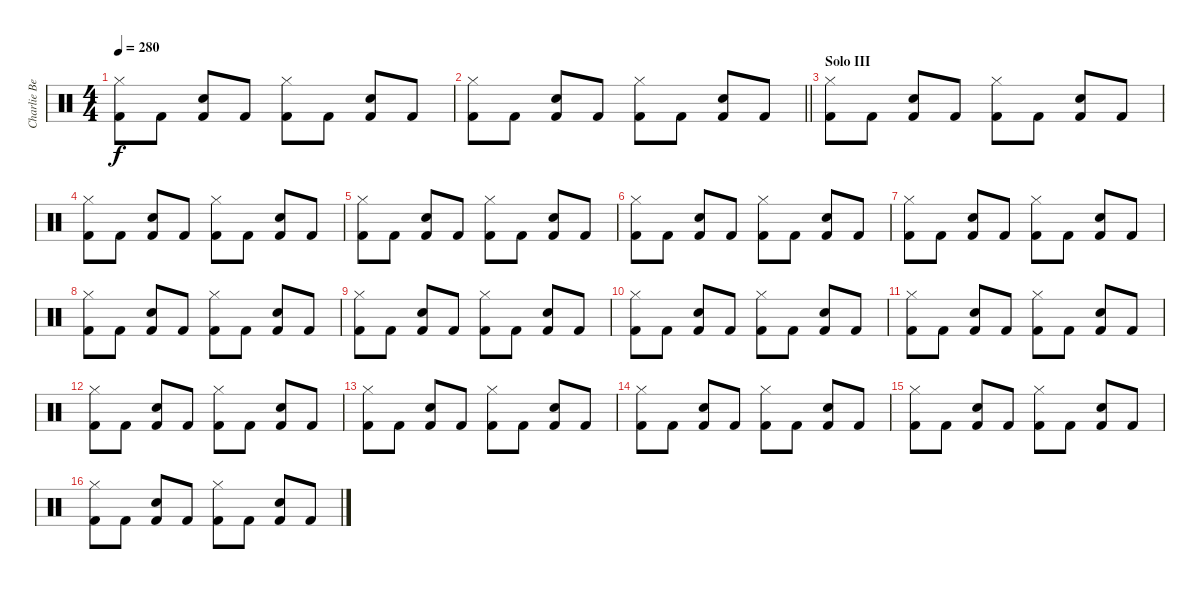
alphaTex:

\track ("Charlie Benante" "Charlie Be") {instrument percussion}
\staff {score}
\articulation defaults
\ts (4 4)
\tempo 280
\clef neutral
\ks c
("Hi-Hat (closed)" "Kick (hit) 2").8{dy f} "Kick (hit) 2".8 ("Snare (hit) 2" "Kick (hit) 2").8 "Kick (hit) 2".8 ("Hi-Hat (closed)" "Kick (hit) 2").8 "Kick (hit) 2".8 ("Snare (hit) 2" "Kick (hit) 2").8 "Kick (hit) 2".8 |
\barLineRight lightlight
("Hi-Hat (closed)" "Kick (hit) 2").8 "Kick (hit) 2".8 ("Snare (hit) 2" "Kick (hit) 2").8 "Kick (hit) 2".8 ("Hi-Hat (closed)" "Kick (hit) 2").8 "Kick (hit) 2".8 ("Snare (hit) 2" "Kick (hit) 2").8 "Kick (hit) 2".8 |
\section ("" "Solo III")
("Hi-Hat (closed)" "Kick (hit) 2").8 "Kick (hit) 2".8 ("Snare (hit) 2" "Kick (hit) 2").8 "Kick (hit) 2".8 ("Hi-Hat (closed)" "Kick (hit) 2").8 "Kick (hit) 2".8 ("Snare (hit) 2" "Kick (hit) 2").8 "Kick (hit) 2".8 |
("Hi-Hat (closed)" "Kick (hit) 2").8 "Kick (hit) 2".8 ("Snare (hit) 2" "Kick (hit) 2").8 "Kick (hit) 2".8 ("Hi-Hat (closed)" "Kick (hit) 2").8 "Kick (hit) 2".8 ("Snare (hit) 2" "Kick (hit) 2").8 "Kick (hit) 2".8 |
("Hi-Hat (closed)" "Kick (hit) 2").8 "Kick (hit) 2".8 ("Snare (hit) 2" "Kick (hit) 2").8 "Kick (hit) 2".8 ("Hi-Hat (closed)" "Kick (hit) 2").8 "Kick (hit) 2".8 ("Snare (hit) 2" "Kick (hit) 2").8 "Kick (hit) 2".8 |
("Hi-Hat (closed)" "Kick (hit) 2").8 "Kick (hit) 2".8 ("Snare (hit) 2" "Kick (hit) 2").8 "Kick (hit) 2".8 ("Hi-Hat (closed)" "Kick (hit) 2").8 "Kick (hit) 2".8 ("Snare (hit) 2" "Kick (hit) 2").8 "Kick (hit) 2".8 |
("Hi-Hat (closed)" "Kick (hit) 2").8 "Kick (hit) 2".8 ("Snare (hit) 2" "Kick (hit) 2").8 "Kick (hit) 2".8 ("Hi-Hat (closed)" "Kick (hit) 2").8 "Kick (hit) 2".8 ("Snare (hit) 2" "Kick (hit) 2").8 "Kick (hit) 2".8 |
("Hi-Hat (closed)" "Kick (hit) 2").8 "Kick (hit) 2".8 ("Snare (hit) 2" "Kick (hit) 2").8 "Kick (hit) 2".8 ("Hi-Hat (closed)" "Kick (hit) 2").8 "Kick (hit) 2".8 ("Snare (hit) 2" "Kick (hit) 2").8 "Kick (hit) 2".8 |
("Hi-Hat (closed)" "Kick (hit) 2").8 "Kick (hit) 2".8 ("Snare (hit) 2" "Kick (hit) 2").8 "Kick (hit) 2".8 ("Hi-Hat (closed)" "Kick (hit) 2").8 "Kick (hit) 2".8 ("Snare (hit) 2" "Kick (hit) 2").8 "Kick (hit) 2".8 |
("Hi-Hat (closed)" "Kick (hit) 2").8 "Kick (hit) 2".8 ("Snare (hit) 2" "Kick (hit) 2").8 "Kick (hit) 2".8 ("Hi-Hat (closed)" "Kick (hit) 2").8 "Kick (hit) 2".8 ("Snare (hit) 2" "Kick (hit) 2").8 "Kick (hit) 2".8 |
("Hi-Hat (closed)" "Kick (hit) 2").8 "Kick (hit) 2".8 ("Snare (hit) 2" "Kick (hit) 2").8 "Kick (hit) 2".8 ("Hi-Hat (closed)" "Kick (hit) 2").8 "Kick (hit) 2".8 ("Snare (hit) 2" "Kick (hit) 2").8 "Kick (hit) 2".8 |
("Hi-Hat (closed)" "Kick (hit) 2").8 "Kick (hit) 2".8 ("Snare (hit) 2" "Kick (hit) 2").8 "Kick (hit) 2".8 ("Hi-Hat (closed)" "Kick (hit) 2").8 "Kick (hit) 2".8 ("Snare (hit) 2" "Kick (hit) 2").8 "Kick (hit) 2".8 |
("Hi-Hat (closed)" "Kick (hit) 2").8 "Kick (hit) 2".8 ("Snare (hit) 2" "Kick (hit) 2").8 "Kick (hit) 2".8 ("Hi-Hat (closed)" "Kick (hit) 2").8 "Kick (hit) 2".8 ("Snare (hit) 2" "Kick (hit) 2").8 "Kick (hit) 2".8 |
("Hi-Hat (closed)" "Kick (hit) 2").8 "Kick (hit) 2".8 ("Snare (hit) 2" "Kick (hit) 2").8 "Kick (hit) 2".8 ("Hi-Hat (closed)" "Kick (hit) 2").8 "Kick (hit) 2".8 ("Snare (hit) 2" "Kick (hit) 2").8 "Kick (hit) 2".8 |
("Hi-Hat (closed)" "Kick (hit) 2").8 "Kick (hit) 2".8 ("Snare (hit) 2" "Kick (hit) 2").8 "Kick (hit) 2".8 ("Hi-Hat (closed)" "Kick (hit) 2").8 "Kick (hit) 2".8 ("Snare (hit) 2" "Kick (hit) 2").8 "Kick (hit) 2".8 |
("Hi-Hat (closed)" "Kick (hit) 2").8 "Kick (hit) 2".8 ("Snare (hit) 2" "Kick (hit) 2").8 "Kick (hit) 2".8 ("Hi-Hat (closed)" "Kick (hit) 2").8 "Kick (hit) 2".8 ("Snare (hit) 2" "Kick (hit) 2").8 "Kick (hit) 2".8
